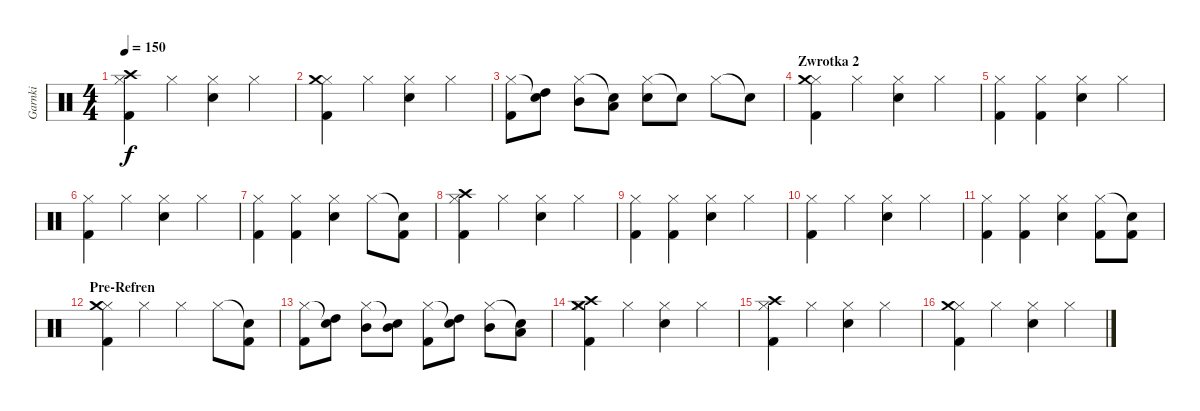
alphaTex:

\track ("Garnki" "Garnki") {instrument percussion}
\staff {score}
\articulation defaults
\ts (4 4)
\tempo 150
\clef neutral
\ks c
("Hi-Hat (closed)" "Crash high (hit)" "Kick (hit) 2").4{dy f} "Hi-Hat (closed)".4 ("Hi-Hat (closed)" "Snare (hit) 2").4 "Hi-Hat (closed)".4 |
("Hi-Hat (closed)" "Crash medium (hit)" "Kick (hit) 2").4 "Hi-Hat (closed)".4 ("Hi-Hat (closed)" "Snare (hit) 2").4 "Hi-Hat (closed)".4 |
("Hi-Hat (closed)" "Kick (hit) 2").8 ("Snare (hit)"{t} "High Tom (hit)").8 ("Hi-Hat (closed)" "Mid Tom (hit)").8 ("Snare (hit)"{t} "Low Tom (hit)").8 ("Hi-Hat (closed)" "Snare (hit) 2").8 "Snare (hit)"{t}.8 "Hi-Hat (closed)".8 "Snare (hit)"{t}.8 |
\section ("" "Zwrotka 2")
("Hi-Hat (closed)" "Crash medium (hit)" "Kick (hit) 2").4 "Hi-Hat (closed)".4 ("Hi-Hat (closed)" "Snare (hit) 2").4 "Hi-Hat (closed)".4 |
("Hi-Hat (closed)" "Kick (hit) 2").4 ("Hi-Hat (closed)" "Kick (hit) 2").4 ("Hi-Hat (closed)" "Snare (hit) 2").4 "Hi-Hat (closed)".4 |
("Hi-Hat (closed)" "Kick (hit) 2").4 "Hi-Hat (closed)".4 ("Hi-Hat (closed)" "Snare (hit) 2").4 "Hi-Hat (closed)".4 |
("Hi-Hat (closed)" "Kick (hit) 2").4 ("Hi-Hat (closed)" "Kick (hit) 2").4 ("Hi-Hat (closed)" "Snare (hit) 2").4 "Hi-Hat (closed)".8 ("Snare (hit)"{t} "Kick (hit) 2").8 |
("Hi-Hat (closed)" "Crash high (hit)" "Kick (hit) 2").4 "Hi-Hat (closed)".4 ("Hi-Hat (closed)" "Snare (hit) 2").4 "Hi-Hat (closed)".4 |
("Hi-Hat (closed)" "Kick (hit) 2").4 ("Hi-Hat (closed)" "Kick (hit) 2").4 ("Hi-Hat (closed)" "Snare (hit) 2").4 "Hi-Hat (closed)".4 |
("Hi-Hat (closed)" "Kick (hit) 2").4 "Hi-Hat (closed)".4 ("Hi-Hat (closed)" "Snare (hit) 2").4 "Hi-Hat (closed)".4 |
("Hi-Hat (closed)" "Kick (hit) 2").4 ("Hi-Hat (closed)" "Kick (hit) 2").4 ("Hi-Hat (closed)" "Snare (hit) 2").4 ("Hi-Hat (closed)" "Kick (hit) 2").8 ("Snare (hit)"{t} "Kick (hit) 2").8 |
\section ("" "Pre-Refren")
("Hi-Hat (closed)" "Crash medium (hit)" "Kick (hit) 2").4 "Hi-Hat (closed)".4 "Hi-Hat (closed)".4 "Hi-Hat (closed)".8 ("Snare (hit)"{t} "Kick (hit) 2").8 |
("Hi-Hat (closed)" "Kick (hit) 2").8 ("Snare (hit)"{t} "High Tom (hit)").8 ("Hi-Hat (closed)" "Mid Tom (hit)").8 ("Snare (hit)"{t} "Mid Tom (hit)").8 ("Hi-Hat (closed)" "Kick (hit) 2").8 ("Snare (hit)"{t} "High Tom (hit)").8 ("Hi-Hat (closed)" "Mid Tom (hit)").8 ("Snare (hit)"{t} "Low Tom (hit)").8 |
("Hi-Hat (closed)" "Crash high (hit)" "Kick (hit) 2" "Crash medium (hit)").4 "Hi-Hat (closed)".4 ("Hi-Hat (closed)" "Snare (hit) 2").4 "Hi-Hat (closed)".4 |
("Hi-Hat (closed)" "Crash high (hit)" "Kick (hit) 2").4 "Hi-Hat (closed)".4 ("Hi-Hat (closed)" "Snare (hit) 2").4 "Hi-Hat (closed)".4 |
("Hi-Hat (closed)" "Crash medium (hit)" "Kick (hit) 2").4 "Hi-Hat (closed)".4 ("Hi-Hat (closed)" "Snare (hit) 2").4 "Hi-Hat (closed)".4
